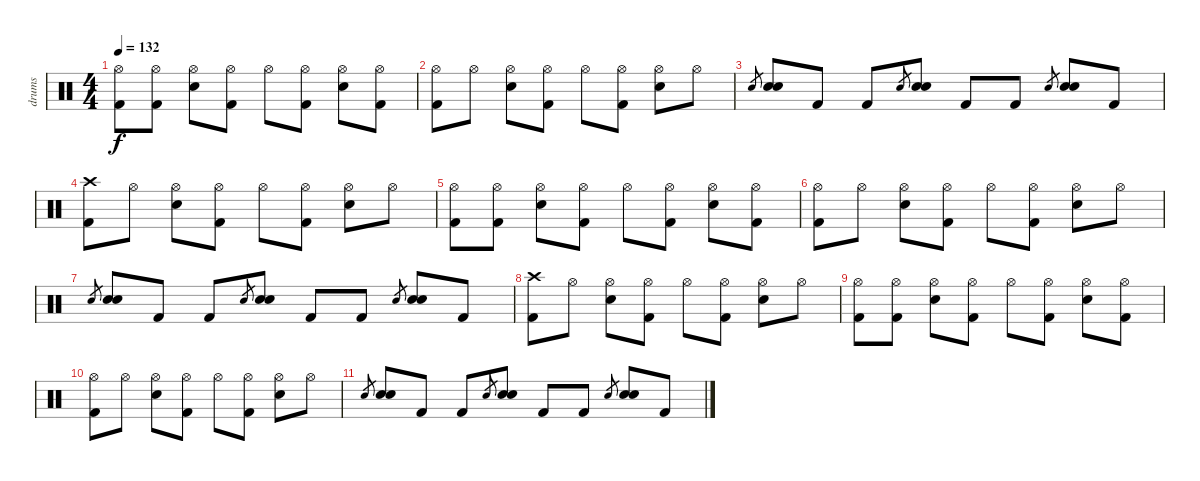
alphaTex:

\track ("drums" "drums") {instrument percussion}
\staff {score}
\articulation defaults
\ts (4 4)
\tempo 132
\clef neutral
\ks c
("Hi-Hat (open)" "Kick (hit) 2").8{dy f} ("Hi-Hat (open)" "Kick (hit) 2").8 ("Hi-Hat (open)" "Electric Snare (hit)").8 ("Hi-Hat (open)" "Kick (hit) 2").8 "Hi-Hat (open)".8 ("Hi-Hat (open)" "Kick (hit) 2").8 ("Hi-Hat (open)" "Electric Snare (hit)").8 ("Hi-Hat (open)" "Kick (hit) 2").8 |
("Hi-Hat (open)" "Kick (hit) 2").8 "Hi-Hat (open)".8 ("Hi-Hat (open)" "Electric Snare (hit)").8 ("Hi-Hat (open)" "Kick (hit) 2").8 "Hi-Hat (open)".8 ("Hi-Hat (open)" "Kick (hit) 2").8 ("Hi-Hat (open)" "Electric Snare (hit)").8 "Hi-Hat (open)".8 |
"Electric Snare (hit)".8{gr} ("Electric Snare (hit)" "Electric Snare (hit)").8 "Kick (hit) 2".8 "Kick (hit) 2".8 "Electric Snare (hit)".8{gr} ("Electric Snare (hit)" "Electric Snare (hit)").8 "Kick (hit) 2".8 "Kick (hit) 2".8 "Electric Snare (hit)".8{gr} ("Electric Snare (hit)" "Electric Snare (hit)").8 "Kick (hit) 2".8 |
("Crash high (hit)" "Kick (hit) 2").8 "Hi-Hat (open)".8 ("Hi-Hat (open)" "Electric Snare (hit)").8 ("Hi-Hat (open)" "Kick (hit) 2").8 "Hi-Hat (open)".8 ("Hi-Hat (open)" "Kick (hit) 2").8 ("Hi-Hat (open)" "Electric Snare (hit)").8 "Hi-Hat (open)".8 |
("Hi-Hat (open)" "Kick (hit) 2").8 ("Hi-Hat (open)" "Kick (hit) 2").8 ("Hi-Hat (open)" "Electric Snare (hit)").8 ("Hi-Hat (open)" "Kick (hit) 2").8 "Hi-Hat (open)".8 ("Hi-Hat (open)" "Kick (hit) 2").8 ("Hi-Hat (open)" "Electric Snare (hit)").8 ("Hi-Hat (open)" "Kick (hit) 2").8 |
("Hi-Hat (open)" "Kick (hit) 2").8 "Hi-Hat (open)".8 ("Hi-Hat (open)" "Electric Snare (hit)").8 ("Hi-Hat (open)" "Kick (hit) 2").8 "Hi-Hat (open)".8 ("Hi-Hat (open)" "Kick (hit) 2").8 ("Hi-Hat (open)" "Electric Snare (hit)").8 "Hi-Hat (open)".8 |
"Electric Snare (hit)".8{gr} ("Electric Snare (hit)" "Electric Snare (hit)").8 "Kick (hit) 2".8 "Kick (hit) 2".8 "Electric Snare (hit)".8{gr} ("Electric Snare (hit)" "Electric Snare (hit)").8 "Kick (hit) 2".8 "Kick (hit) 2".8 "Electric Snare (hit)".8{gr} ("Electric Snare (hit)" "Electric Snare (hit)").8 "Kick (hit) 2".8 |
("Crash high (hit)" "Kick (hit) 2").8 "Hi-Hat (open)".8 ("Hi-Hat (open)" "Electric Snare (hit)").8 ("Hi-Hat (open)" "Kick (hit) 2").8 "Hi-Hat (open)".8 ("Hi-Hat (open)" "Kick (hit) 2").8 ("Hi-Hat (open)" "Electric Snare (hit)").8 "Hi-Hat (open)".8 |
("Hi-Hat (open)" "Kick (hit) 2").8 ("Hi-Hat (open)" "Kick (hit) 2").8 ("Hi-Hat (open)" "Electric Snare (hit)").8 ("Hi-Hat (open)" "Kick (hit) 2").8 "Hi-Hat (open)".8 ("Hi-Hat (open)" "Kick (hit) 2").8 ("Hi-Hat (open)" "Electric Snare (hit)").8 ("Hi-Hat (open)" "Kick (hit) 2").8 |
("Hi-Hat (open)" "Kick (hit) 2").8 "Hi-Hat (open)".8 ("Hi-Hat (open)" "Electric Snare (hit)").8 ("Hi-Hat (open)" "Kick (hit) 2").8 "Hi-Hat (open)".8 ("Hi-Hat (open)" "Kick (hit) 2").8 ("Hi-Hat (open)" "Electric Snare (hit)").8 "Hi-Hat (open)".8 |
"Electric Snare (hit)".8{gr} ("Electric Snare (hit)" "Electric Snare (hit)").8 "Kick (hit) 2".8 "Kick (hit) 2".8 "Electric Snare (hit)".8{gr} ("Electric Snare (hit)" "Electric Snare (hit)").8 "Kick (hit) 2".8 "Kick (hit) 2".8 "Electric Snare (hit)".8{gr} ("Electric Snare (hit)" "Electric Snare (hit)").8 "Kick (hit) 2".8
